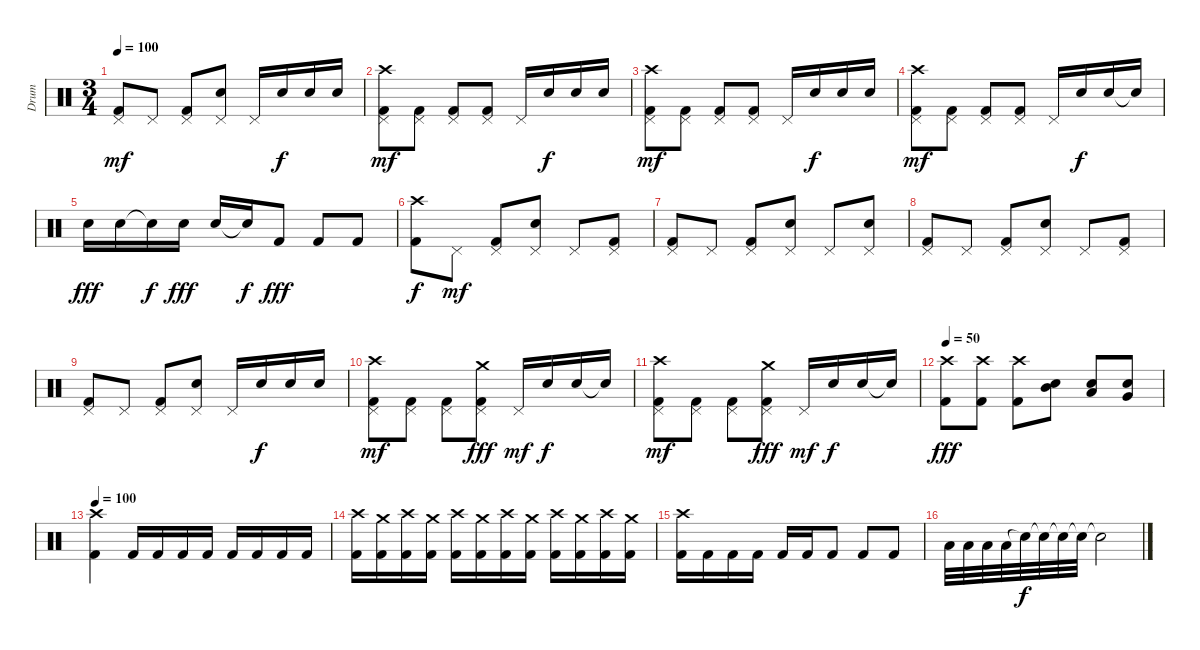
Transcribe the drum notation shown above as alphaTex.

\track ("Drum" "Drum") {instrument percussion}
\staff {score}
\articulation defaults
\ts (3 4)
\tempo 100
\clef neutral
\ks c
("Kick (hit) 2" "Pedal Hi-Hat (hit)").8{dy mf} "Pedal Hi-Hat (hit)".8 ("Kick (hit) 2" "Pedal Hi-Hat (hit)").8 ("Snare (hit) 2" "Pedal Hi-Hat (hit)").8 "Pedal Hi-Hat (hit)".16 "Snare (hit) 2".16{dy f} "Snare (hit) 2".16 "Snare (hit) 2".16 |
("Kick (hit) 2" "Pedal Hi-Hat (hit)" "Crash high (hit)").8{dy mf} ("Kick (hit) 2" "Pedal Hi-Hat (hit)").8 ("Kick (hit) 2" "Pedal Hi-Hat (hit)").8 ("Kick (hit) 2" "Pedal Hi-Hat (hit)").8 "Pedal Hi-Hat (hit)".16 "Snare (hit) 2".16{dy f} "Snare (hit) 2".16 "Snare (hit) 2".16 |
("Kick (hit) 2" "Pedal Hi-Hat (hit)" "Crash high (hit)").8{dy mf} ("Kick (hit) 2" "Pedal Hi-Hat (hit)").8 ("Kick (hit) 2" "Pedal Hi-Hat (hit)").8 ("Kick (hit) 2" "Pedal Hi-Hat (hit)").8 "Pedal Hi-Hat (hit)".16 "Snare (hit) 2".16{dy f} "Snare (hit) 2".16 "Snare (hit) 2".16 |
("Kick (hit) 2" "Pedal Hi-Hat (hit)" "Crash high (hit)").8{dy mf} ("Kick (hit) 2" "Pedal Hi-Hat (hit)").8 ("Kick (hit) 2" "Pedal Hi-Hat (hit)").8 ("Kick (hit) 2" "Pedal Hi-Hat (hit)").8 "Pedal Hi-Hat (hit)".16 "Snare (hit) 2".16{dy f} "Snare (hit) 2".16 "Snare (hit) 2"{t}.16 |
"Snare (hit) 2".16{dy fff} "Snare (hit) 2".16 "Snare (hit)"{t}.16{dy f} "Snare (hit) 2".16{dy fff} "Snare (hit) 2".16 "Snare (hit)"{t}.16{dy f} "Kick (hit) 2".8{dy fff} "Kick (hit) 2".8 "Kick (hit) 2".8 |
("Kick (hit) 2" "Crash high (hit)").8{dy f} "Pedal Hi-Hat (hit)".8{dy mf} ("Kick (hit) 2" "Pedal Hi-Hat (hit)").8 ("Snare (hit) 2" "Pedal Hi-Hat (hit)").8 "Pedal Hi-Hat (hit)".8 ("Kick (hit) 2" "Pedal Hi-Hat (hit)").8 |
("Kick (hit) 2" "Pedal Hi-Hat (hit)").8 "Pedal Hi-Hat (hit)".8 ("Kick (hit) 2" "Pedal Hi-Hat (hit)").8 ("Snare (hit) 2" "Pedal Hi-Hat (hit)").8 "Pedal Hi-Hat (hit)".8 ("Snare (hit) 2" "Pedal Hi-Hat (hit)").8 |
("Kick (hit) 2" "Pedal Hi-Hat (hit)").8 "Pedal Hi-Hat (hit)".8 ("Kick (hit) 2" "Pedal Hi-Hat (hit)").8 ("Snare (hit) 2" "Pedal Hi-Hat (hit)").8 "Pedal Hi-Hat (hit)".8 ("Kick (hit) 2" "Pedal Hi-Hat (hit)").8 |
("Kick (hit) 2" "Pedal Hi-Hat (hit)").8 "Pedal Hi-Hat (hit)".8 ("Kick (hit) 2" "Pedal Hi-Hat (hit)").8 ("Snare (hit) 2" "Pedal Hi-Hat (hit)").8 "Pedal Hi-Hat (hit)".16 "Snare (hit) 2".16{dy f} "Snare (hit) 2".16 "Snare (hit) 2".16 |
("Kick (hit) 2" "Pedal Hi-Hat (hit)" "Crash high (hit)").8{dy mf} ("Kick (hit) 2" "Pedal Hi-Hat (hit)").8 ("Kick (hit) 2" "Pedal Hi-Hat (hit)").8 ("Kick (hit) 2" "Pedal Hi-Hat (hit)" "Crash medium (hit)").8{dy fff} "Pedal Hi-Hat (hit)".16{dy mf} "Snare (hit) 2".16{dy f} "Snare (hit) 2".16 "Snare (hit) 2"{t}.16 |
("Kick (hit) 2" "Pedal Hi-Hat (hit)" "Crash high (hit)").8{dy mf} ("Kick (hit) 2" "Pedal Hi-Hat (hit)").8 ("Kick (hit) 2" "Pedal Hi-Hat (hit)").8 ("Kick (hit) 2" "Pedal Hi-Hat (hit)" "Crash medium (hit)").8{dy fff} "Pedal Hi-Hat (hit)".16{dy mf} "Snare (hit) 2".16{dy f} "Snare (hit) 2".16 "Snare (hit) 2"{t}.16 |
\tempo 50
("Kick (hit) 2" "Crash high (hit)").8{dy fff} ("Kick (hit) 2" "Crash high (hit)").8 ("Kick (hit) 2" "Crash high (hit)").8 ("Snare (hit) 2" "Mid Tom (hit)").8{bd 60} ("Snare (hit) 2" "Low Tom (hit)").8{bd 60} ("Snare (hit) 2" "Very Low Tom (hit)").8{bd 60} |
\tempo 100
("Crash high (hit)" "Kick (hit) 2").4 "Kick (hit) 2".16 "Kick (hit) 2".16 "Kick (hit) 2".16 "Kick (hit) 2".16 "Kick (hit) 2".16 "Kick (hit) 2".16 "Kick (hit) 2".16 "Kick (hit) 2".16 |
("Crash high (hit)" "Kick (hit) 2").16 ("Crash medium (hit)" "Kick (hit) 2").16 ("Crash high (hit)" "Kick (hit) 2").16 ("Crash medium (hit)" "Kick (hit) 2").16 ("Crash high (hit)" "Kick (hit) 2").16 ("Crash medium (hit)" "Kick (hit) 2").16 ("Crash high (hit)" "Kick (hit) 2").16 ("Crash medium (hit)" "Kick (hit) 2").16 ("Crash high (hit)" "Kick (hit) 2").16 ("Crash medium (hit)" "Kick (hit) 2").16 ("Crash high (hit)" "Kick (hit) 2").16 ("Crash medium (hit)" "Kick (hit) 2").16 |
("Crash high (hit)" "Kick (hit) 2").16 "Kick (hit) 2".16 "Kick (hit) 2".16 "Kick (hit) 2".16 "Kick (hit) 2".16 "Kick (hit) 2".16 "Kick (hit) 2".8 "Kick (hit) 2".8 "Kick (hit) 2".8 |
"Low Tom (hit)".32 "Low Tom (hit)".32 "Low Floor Tom (hit)".32 "Low Floor Tom (hit)".32 "Snare (hit)"{t}.32{dy f} "Snare (hit)"{t}.32 "Snare (hit)"{t}.32 "Snare (hit)"{t}.32 "Snare (hit)"{t}.2
